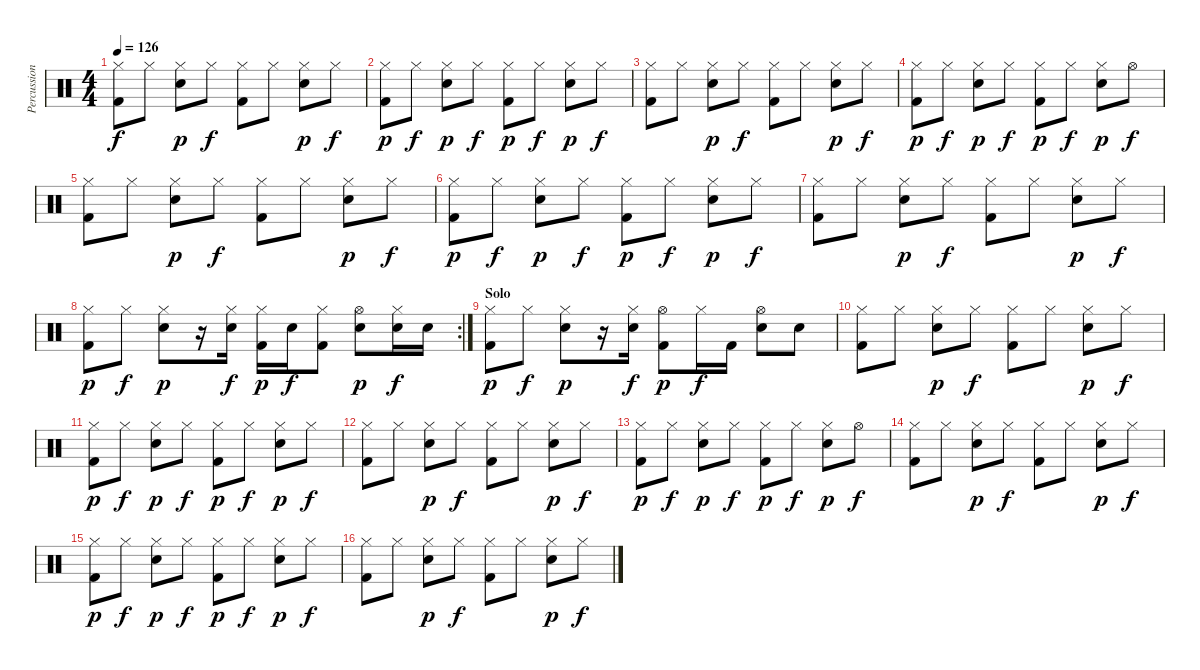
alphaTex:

\track ("Percussion" "Percussion") {instrument percussion}
\staff {score}
\articulation defaults
\ts (4 4)
\tempo 126
\clef neutral
\ks c
("Hi-Hat (closed)" "Kick (hit) 2").8{dy f} "Hi-Hat (closed)".8 ("Hi-Hat (closed)" "Snare (hit) 2").8{dy p} "Hi-Hat (closed)".8{dy f} ("Hi-Hat (closed)" "Kick (hit) 2").8 "Hi-Hat (closed)".8 ("Hi-Hat (closed)" "Snare (hit) 2").8{dy p} "Hi-Hat (closed)".8{dy f} |
("Hi-Hat (closed)" "Kick (hit) 2").8{dy p} "Hi-Hat (closed)".8{dy f} ("Hi-Hat (closed)" "Snare (hit) 2").8{dy p} "Hi-Hat (closed)".8{dy f} ("Hi-Hat (closed)" "Kick (hit) 2").8{dy p} "Hi-Hat (closed)".8{dy f} ("Hi-Hat (closed)" "Snare (hit) 2").8{dy p} "Hi-Hat (closed)".8{dy f} |
("Hi-Hat (closed)" "Kick (hit) 2").8 "Hi-Hat (closed)".8 ("Hi-Hat (closed)" "Snare (hit) 2").8{dy p} "Hi-Hat (closed)".8{dy f} ("Hi-Hat (closed)" "Kick (hit) 2").8 "Hi-Hat (closed)".8 ("Hi-Hat (closed)" "Snare (hit) 2").8{dy p} "Hi-Hat (closed)".8{dy f} |
("Hi-Hat (closed)" "Kick (hit) 2").8{dy p} "Hi-Hat (closed)".8{dy f} ("Hi-Hat (closed)" "Snare (hit) 2").8{dy p} "Hi-Hat (closed)".8{dy f} ("Hi-Hat (closed)" "Kick (hit) 2").8{dy p} "Hi-Hat (closed)".8{dy f} ("Hi-Hat (closed)" "Snare (hit) 2").8{dy p} "Hi-Hat (open)".8{dy f} |
("Hi-Hat (closed)" "Kick (hit) 2").8 "Hi-Hat (closed)".8 ("Hi-Hat (closed)" "Snare (hit) 2").8{dy p} "Hi-Hat (closed)".8{dy f} ("Hi-Hat (closed)" "Kick (hit) 2").8 "Hi-Hat (closed)".8 ("Hi-Hat (closed)" "Snare (hit) 2").8{dy p} "Hi-Hat (closed)".8{dy f} |
("Hi-Hat (closed)" "Kick (hit) 2").8{dy p} "Hi-Hat (closed)".8{dy f} ("Hi-Hat (closed)" "Snare (hit) 2").8{dy p} "Hi-Hat (closed)".8{dy f} ("Hi-Hat (closed)" "Kick (hit) 2").8{dy p} "Hi-Hat (closed)".8{dy f} ("Hi-Hat (closed)" "Snare (hit) 2").8{dy p} "Hi-Hat (closed)".8{dy f} |
("Hi-Hat (closed)" "Kick (hit) 2").8 "Hi-Hat (closed)".8 ("Hi-Hat (closed)" "Snare (hit) 2").8{dy p} "Hi-Hat (closed)".8{dy f} ("Hi-Hat (closed)" "Kick (hit) 2").8 "Hi-Hat (closed)".8 ("Hi-Hat (closed)" "Snare (hit) 2").8{dy p} "Hi-Hat (closed)".8{dy f} |
\rc 2
("Hi-Hat (closed)" "Kick (hit) 2").8{dy p} "Hi-Hat (closed)".8{dy f} ("Hi-Hat (closed)" "Snare (hit) 2").8{dy p} r.16 ("Hi-Hat (closed)" "Snare (hit) 2").16{dy f} ("Hi-Hat (closed)" "Kick (hit) 2").16{dy p} "Snare (hit) 2".16{dy f} ("Hi-Hat (closed)" "Kick (hit) 2").8 ("Hi-Hat (open)" "Snare (hit) 2").8{dy p} ("Hi-Hat (closed)" "Snare (hit) 2").16{dy f} "Snare (hit) 2".16 |
\section ("" "Solo")
("Hi-Hat (closed)" "Kick (hit) 2").8{dy p} "Hi-Hat (closed)".8{dy f} ("Hi-Hat (closed)" "Snare (hit) 2").8{dy p} r.16 ("Hi-Hat (closed)" "Snare (hit) 2").16{dy f} ("Hi-Hat (open)" "Kick (hit) 2").8{dy p} "Hi-Hat (closed)".16{dy f} "Kick (hit) 2".16 ("Hi-Hat (open)" "Snare (hit) 2").8 "Snare (hit) 2".8 |
("Hi-Hat (closed)" "Kick (hit) 2").8 "Hi-Hat (closed)".8 ("Hi-Hat (closed)" "Snare (hit) 2").8{dy p} "Hi-Hat (closed)".8{dy f} ("Hi-Hat (closed)" "Kick (hit) 2").8 "Hi-Hat (closed)".8 ("Hi-Hat (closed)" "Snare (hit) 2").8{dy p} "Hi-Hat (closed)".8{dy f} |
("Hi-Hat (closed)" "Kick (hit) 2").8{dy p} "Hi-Hat (closed)".8{dy f} ("Hi-Hat (closed)" "Snare (hit) 2").8{dy p} "Hi-Hat (closed)".8{dy f} ("Hi-Hat (closed)" "Kick (hit) 2").8{dy p} "Hi-Hat (closed)".8{dy f} ("Hi-Hat (closed)" "Snare (hit) 2").8{dy p} "Hi-Hat (closed)".8{dy f} |
("Hi-Hat (closed)" "Kick (hit) 2").8 "Hi-Hat (closed)".8 ("Hi-Hat (closed)" "Snare (hit) 2").8{dy p} "Hi-Hat (closed)".8{dy f} ("Hi-Hat (closed)" "Kick (hit) 2").8 "Hi-Hat (closed)".8 ("Hi-Hat (closed)" "Snare (hit) 2").8{dy p} "Hi-Hat (closed)".8{dy f} |
("Hi-Hat (closed)" "Kick (hit) 2").8{dy p} "Hi-Hat (closed)".8{dy f} ("Hi-Hat (closed)" "Snare (hit) 2").8{dy p} "Hi-Hat (closed)".8{dy f} ("Hi-Hat (closed)" "Kick (hit) 2").8{dy p} "Hi-Hat (closed)".8{dy f} ("Hi-Hat (closed)" "Snare (hit) 2").8{dy p} "Hi-Hat (open)".8{dy f} |
("Hi-Hat (closed)" "Kick (hit) 2").8 "Hi-Hat (closed)".8 ("Hi-Hat (closed)" "Snare (hit) 2").8{dy p} "Hi-Hat (closed)".8{dy f} ("Hi-Hat (closed)" "Kick (hit) 2").8 "Hi-Hat (closed)".8 ("Hi-Hat (closed)" "Snare (hit) 2").8{dy p} "Hi-Hat (closed)".8{dy f} |
("Hi-Hat (closed)" "Kick (hit) 2").8{dy p} "Hi-Hat (closed)".8{dy f} ("Hi-Hat (closed)" "Snare (hit) 2").8{dy p} "Hi-Hat (closed)".8{dy f} ("Hi-Hat (closed)" "Kick (hit) 2").8{dy p} "Hi-Hat (closed)".8{dy f} ("Hi-Hat (closed)" "Snare (hit) 2").8{dy p} "Hi-Hat (closed)".8{dy f} |
("Hi-Hat (closed)" "Kick (hit) 2").8 "Hi-Hat (closed)".8 ("Hi-Hat (closed)" "Snare (hit) 2").8{dy p} "Hi-Hat (closed)".8{dy f} ("Hi-Hat (closed)" "Kick (hit) 2").8 "Hi-Hat (closed)".8 ("Hi-Hat (closed)" "Snare (hit) 2").8{dy p} "Hi-Hat (closed)".8{dy f}
